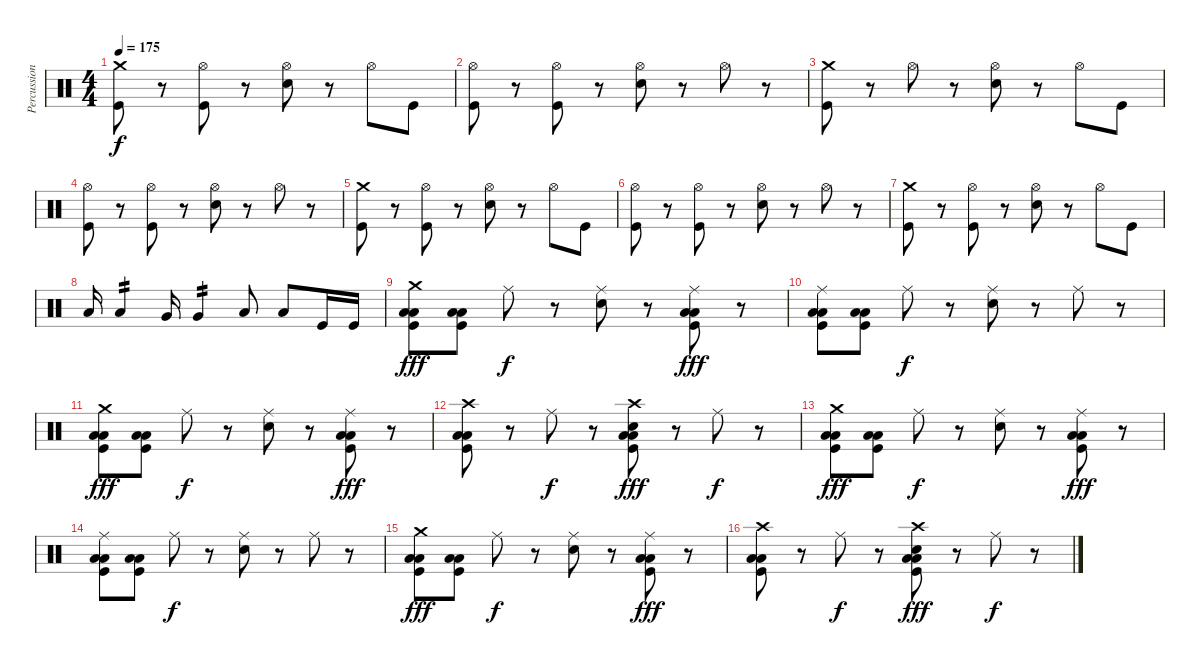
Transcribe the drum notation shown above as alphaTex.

\track ("Percussions" "Percussion") {instrument percussion}
\staff {score}
\articulation defaults
\ts (4 4)
\tempo 175
\clef neutral
\ks c
("Crash medium (hit)" "Kick (hit)").8{dy f} r.8 ("Hi-Hat (open)" "Kick (hit)").8 r.8 ("Hi-Hat (open)" "Snare (hit) 2").8 r.8 "Hi-Hat (open)".8 "Kick (hit)".8 |
("Hi-Hat (open)" "Kick (hit)").8 r.8 ("Hi-Hat (open)" "Kick (hit)").8 r.8 ("Hi-Hat (open)" "Snare (hit) 2").8 r.8 "Hi-Hat (open)".8 r.8 |
("Crash medium (hit)" "Kick (hit)").8 r.8 "Hi-Hat (open)".8 r.8 ("Hi-Hat (open)" "Snare (hit) 2").8 r.8 "Hi-Hat (open)".8 "Kick (hit)".8 |
("Hi-Hat (open)" "Kick (hit)").8 r.8 ("Hi-Hat (open)" "Kick (hit)").8 r.8 ("Hi-Hat (open)" "Snare (hit) 2").8 r.8 "Hi-Hat (open)".8 r.8 |
("Crash medium (hit)" "Kick (hit)").8 r.8 ("Hi-Hat (open)" "Kick (hit)").8 r.8 ("Hi-Hat (open)" "Snare (hit) 2").8 r.8 "Hi-Hat (open)".8 "Kick (hit)".8 |
("Hi-Hat (open)" "Kick (hit)").8 r.8 ("Hi-Hat (open)" "Kick (hit)").8 r.8 ("Hi-Hat (open)" "Snare (hit) 2").8 r.8 "Hi-Hat (open)".8 r.8 |
("Crash medium (hit)" "Kick (hit)").8 r.8 ("Hi-Hat (open)" "Kick (hit)").8 r.8 ("Hi-Hat (open)" "Snare (hit) 2").8 r.8 "Hi-Hat (open)".8 "Kick (hit)".8 |
"Low Tom (hit)".16 "Low Tom (hit)".4{tp 2} "Very Low Tom (hit)".16 "Very Low Tom (hit)".4{tp 2} "Low Tom (hit)".8 "Low Tom (hit)".8 "Kick (hit)".16 "Kick (hit)".16 |
("Crash medium (hit)" "Low Tom (hit)" "Low Floor Tom (hit)" "Kick (hit)").8{dy fff} ("Low Tom (hit)" "Low Floor Tom (hit)" "Kick (hit)").8 "Ride (middle)".8{dy f} r.8 ("Ride (middle)" "Snare (hit) 2").8 r.8 ("Ride (middle)" "Low Tom (hit)" "Low Floor Tom (hit)" "Kick (hit)").8{dy fff} r.8 |
("Ride (middle)" "Low Tom (hit)" "Low Floor Tom (hit)" "Kick (hit)").8 ("Low Tom (hit)" "Low Floor Tom (hit)" "Kick (hit)").8 "Ride (middle)".8{dy f} r.8 ("Ride (middle)" "Snare (hit) 2").8 r.8 "Ride (middle)".8 r.8 |
("Crash medium (hit)" "Low Tom (hit)" "Low Floor Tom (hit)" "Kick (hit)").8{dy fff} ("Low Tom (hit)" "Low Floor Tom (hit)" "Kick (hit)").8 "Ride (middle)".8{dy f} r.8 ("Ride (middle)" "Snare (hit) 2").8 r.8 ("Ride (middle)" "Low Tom (hit)" "Low Floor Tom (hit)" "Kick (hit)").8{dy fff} r.8 |
("Crash high (hit)" "Low Tom (hit)" "Low Floor Tom (hit)" "Kick (hit)").8 r.8 "Ride (middle)".8{dy f} r.8 ("Crash high (hit)" "Snare (hit) 2" "Low Tom (hit)" "Low Floor Tom (hit)" "Kick (hit)").8{dy fff} r.8 "Ride (middle)".8{dy f} r.8 |
("Crash medium (hit)" "Low Tom (hit)" "Low Floor Tom (hit)" "Kick (hit)").8{dy fff} ("Low Tom (hit)" "Low Floor Tom (hit)" "Kick (hit)").8 "Ride (middle)".8{dy f} r.8 ("Ride (middle)" "Snare (hit) 2").8 r.8 ("Ride (middle)" "Low Tom (hit)" "Low Floor Tom (hit)" "Kick (hit)").8{dy fff} r.8 |
("Ride (middle)" "Low Tom (hit)" "Low Floor Tom (hit)" "Kick (hit)").8 ("Low Tom (hit)" "Low Floor Tom (hit)" "Kick (hit)").8 "Ride (middle)".8{dy f} r.8 ("Ride (middle)" "Snare (hit) 2").8 r.8 "Ride (middle)".8 r.8 |
("Crash medium (hit)" "Low Tom (hit)" "Low Floor Tom (hit)" "Kick (hit)").8{dy fff} ("Low Tom (hit)" "Low Floor Tom (hit)" "Kick (hit)").8 "Ride (middle)".8{dy f} r.8 ("Ride (middle)" "Snare (hit) 2").8 r.8 ("Ride (middle)" "Low Tom (hit)" "Low Floor Tom (hit)" "Kick (hit)").8{dy fff} r.8 |
("Crash high (hit)" "Low Tom (hit)" "Low Floor Tom (hit)" "Kick (hit)").8 r.8 "Ride (middle)".8{dy f} r.8 ("Crash high (hit)" "Snare (hit) 2" "Low Tom (hit)" "Low Floor Tom (hit)" "Kick (hit)").8{dy fff} r.8 "Ride (middle)".8{dy f} r.8
